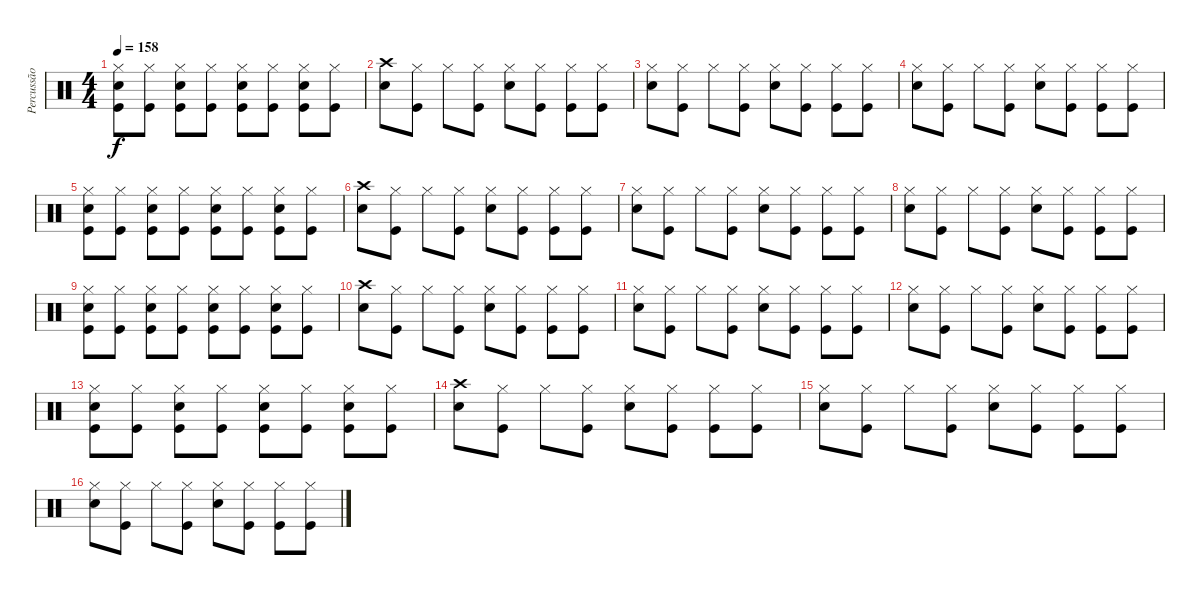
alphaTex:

\track ("Percussão" "Percussão") {instrument percussion}
\staff {score}
\articulation defaults
\ts (4 4)
\tempo 158
\clef neutral
\ks c
("Hi-Hat (closed)" "Electric Snare (hit)" "Kick (hit)").8{dy f} ("Hi-Hat (closed)" "Kick (hit)").8 ("Hi-Hat (closed)" "Electric Snare (hit)" "Kick (hit)").8 ("Hi-Hat (closed)" "Kick (hit)").8 ("Hi-Hat (closed)" "Electric Snare (hit)" "Kick (hit)").8 ("Hi-Hat (closed)" "Kick (hit)").8 ("Hi-Hat (closed)" "Electric Snare (hit)" "Kick (hit)").8 ("Hi-Hat (closed)" "Kick (hit)").8 |
("Crash high (hit)" "Electric Snare (hit)").8 ("Hi-Hat (closed)" "Kick (hit)").8 "Hi-Hat (closed)".8 ("Hi-Hat (closed)" "Kick (hit)").8 ("Hi-Hat (closed)" "Electric Snare (hit)").8 ("Hi-Hat (closed)" "Kick (hit)").8 ("Hi-Hat (closed)" "Kick (hit)").8 ("Hi-Hat (closed)" "Kick (hit)").8 |
("Hi-Hat (closed)" "Electric Snare (hit)").8 ("Hi-Hat (closed)" "Kick (hit)").8 "Hi-Hat (closed)".8 ("Hi-Hat (closed)" "Kick (hit)").8 ("Hi-Hat (closed)" "Electric Snare (hit)").8 ("Hi-Hat (closed)" "Kick (hit)").8 ("Hi-Hat (closed)" "Kick (hit)").8 ("Hi-Hat (closed)" "Kick (hit)").8 |
("Hi-Hat (closed)" "Electric Snare (hit)").8 ("Hi-Hat (closed)" "Kick (hit)").8 "Hi-Hat (closed)".8 ("Hi-Hat (closed)" "Kick (hit)").8 ("Hi-Hat (closed)" "Electric Snare (hit)").8 ("Hi-Hat (closed)" "Kick (hit)").8 ("Hi-Hat (closed)" "Kick (hit)").8 ("Hi-Hat (closed)" "Kick (hit)").8 |
("Hi-Hat (closed)" "Electric Snare (hit)" "Kick (hit)").8 ("Hi-Hat (closed)" "Kick (hit)").8 ("Hi-Hat (closed)" "Electric Snare (hit)" "Kick (hit)").8 ("Hi-Hat (closed)" "Kick (hit)").8 ("Hi-Hat (closed)" "Electric Snare (hit)" "Kick (hit)").8 ("Hi-Hat (closed)" "Kick (hit)").8 ("Hi-Hat (closed)" "Electric Snare (hit)" "Kick (hit)").8 ("Hi-Hat (closed)" "Kick (hit)").8 |
("Crash high (hit)" "Electric Snare (hit)").8 ("Hi-Hat (closed)" "Kick (hit)").8 "Hi-Hat (closed)".8 ("Hi-Hat (closed)" "Kick (hit)").8 ("Hi-Hat (closed)" "Electric Snare (hit)").8 ("Hi-Hat (closed)" "Kick (hit)").8 ("Hi-Hat (closed)" "Kick (hit)").8 ("Hi-Hat (closed)" "Kick (hit)").8 |
("Hi-Hat (closed)" "Electric Snare (hit)").8 ("Hi-Hat (closed)" "Kick (hit)").8 "Hi-Hat (closed)".8 ("Hi-Hat (closed)" "Kick (hit)").8 ("Hi-Hat (closed)" "Electric Snare (hit)").8 ("Hi-Hat (closed)" "Kick (hit)").8 ("Hi-Hat (closed)" "Kick (hit)").8 ("Hi-Hat (closed)" "Kick (hit)").8 |
("Hi-Hat (closed)" "Electric Snare (hit)").8 ("Hi-Hat (closed)" "Kick (hit)").8 "Hi-Hat (closed)".8 ("Hi-Hat (closed)" "Kick (hit)").8 ("Hi-Hat (closed)" "Electric Snare (hit)").8 ("Hi-Hat (closed)" "Kick (hit)").8 ("Hi-Hat (closed)" "Kick (hit)").8 ("Hi-Hat (closed)" "Kick (hit)").8 |
("Hi-Hat (closed)" "Electric Snare (hit)" "Kick (hit)").8 ("Hi-Hat (closed)" "Kick (hit)").8 ("Hi-Hat (closed)" "Electric Snare (hit)" "Kick (hit)").8 ("Hi-Hat (closed)" "Kick (hit)").8 ("Hi-Hat (closed)" "Electric Snare (hit)" "Kick (hit)").8 ("Hi-Hat (closed)" "Kick (hit)").8 ("Hi-Hat (closed)" "Electric Snare (hit)" "Kick (hit)").8 ("Hi-Hat (closed)" "Kick (hit)").8 |
("Crash high (hit)" "Electric Snare (hit)").8 ("Hi-Hat (closed)" "Kick (hit)").8 "Hi-Hat (closed)".8 ("Hi-Hat (closed)" "Kick (hit)").8 ("Hi-Hat (closed)" "Electric Snare (hit)").8 ("Hi-Hat (closed)" "Kick (hit)").8 ("Hi-Hat (closed)" "Kick (hit)").8 ("Hi-Hat (closed)" "Kick (hit)").8 |
("Hi-Hat (closed)" "Electric Snare (hit)").8 ("Hi-Hat (closed)" "Kick (hit)").8 "Hi-Hat (closed)".8 ("Hi-Hat (closed)" "Kick (hit)").8 ("Hi-Hat (closed)" "Electric Snare (hit)").8 ("Hi-Hat (closed)" "Kick (hit)").8 ("Hi-Hat (closed)" "Kick (hit)").8 ("Hi-Hat (closed)" "Kick (hit)").8 |
("Hi-Hat (closed)" "Electric Snare (hit)").8 ("Hi-Hat (closed)" "Kick (hit)").8 "Hi-Hat (closed)".8 ("Hi-Hat (closed)" "Kick (hit)").8 ("Hi-Hat (closed)" "Electric Snare (hit)").8 ("Hi-Hat (closed)" "Kick (hit)").8 ("Hi-Hat (closed)" "Kick (hit)").8 ("Hi-Hat (closed)" "Kick (hit)").8 |
("Hi-Hat (closed)" "Electric Snare (hit)" "Kick (hit)").8 ("Hi-Hat (closed)" "Kick (hit)").8 ("Hi-Hat (closed)" "Electric Snare (hit)" "Kick (hit)").8 ("Hi-Hat (closed)" "Kick (hit)").8 ("Hi-Hat (closed)" "Electric Snare (hit)" "Kick (hit)").8 ("Hi-Hat (closed)" "Kick (hit)").8 ("Hi-Hat (closed)" "Electric Snare (hit)" "Kick (hit)").8 ("Hi-Hat (closed)" "Kick (hit)").8 |
("Crash high (hit)" "Electric Snare (hit)").8 ("Hi-Hat (closed)" "Kick (hit)").8 "Hi-Hat (closed)".8 ("Hi-Hat (closed)" "Kick (hit)").8 ("Hi-Hat (closed)" "Electric Snare (hit)").8 ("Hi-Hat (closed)" "Kick (hit)").8 ("Hi-Hat (closed)" "Kick (hit)").8 ("Hi-Hat (closed)" "Kick (hit)").8 |
("Hi-Hat (closed)" "Electric Snare (hit)").8 ("Hi-Hat (closed)" "Kick (hit)").8 "Hi-Hat (closed)".8 ("Hi-Hat (closed)" "Kick (hit)").8 ("Hi-Hat (closed)" "Electric Snare (hit)").8 ("Hi-Hat (closed)" "Kick (hit)").8 ("Hi-Hat (closed)" "Kick (hit)").8 ("Hi-Hat (closed)" "Kick (hit)").8 |
("Hi-Hat (closed)" "Electric Snare (hit)").8 ("Hi-Hat (closed)" "Kick (hit)").8 "Hi-Hat (closed)".8 ("Hi-Hat (closed)" "Kick (hit)").8 ("Hi-Hat (closed)" "Electric Snare (hit)").8 ("Hi-Hat (closed)" "Kick (hit)").8 ("Hi-Hat (closed)" "Kick (hit)").8 ("Hi-Hat (closed)" "Kick (hit)").8
